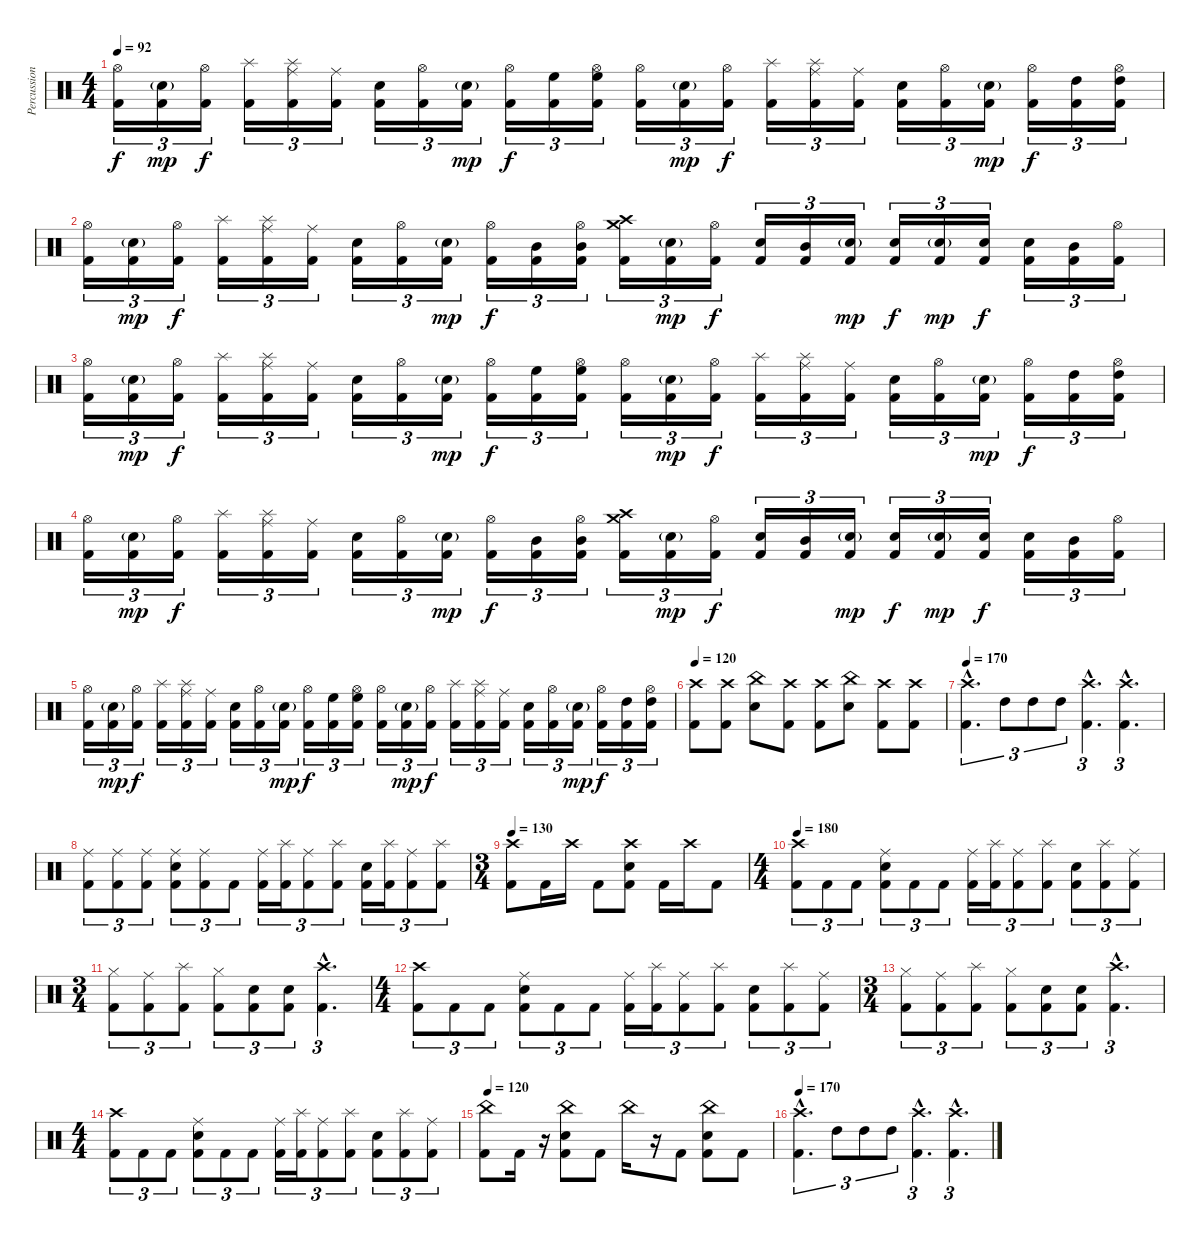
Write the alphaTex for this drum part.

\track ("Percussion" "Percussion") {instrument percussion}
\staff {score}
\articulation defaults
\ts (4 4)
\tempo 92
\clef neutral
\ks c
("Hi-Hat (open)" "Kick (hit) 2").16{tu (3 2) dy f} ("Electric Snare (hit)"{g} "Kick (hit) 2").16{tu (3 2) dy mp} ("Hi-Hat (open)" "Kick (hit) 2").16{tu (3 2) dy f} ("Splash (hit)" "Kick (hit) 2").16{tu (3 2)} ("Ride (middle)" "Splash (hit)" "Kick (hit) 2").16{tu (3 2)} ("Ride (middle)" "Kick (hit) 2").16{tu (3 2)} ("Electric Snare (hit)" "Kick (hit) 2").16{tu (3 2)} ("Hi-Hat (open)" "Kick (hit) 2").16{tu (3 2)} ("Electric Snare (hit)"{g} "Kick (hit) 2").16{tu (3 2) dy mp} ("Hi-Hat (open)" "Kick (hit) 2").16{tu (3 2) dy f} ("High Floor Tom (hit)" "Kick (hit) 2").16{tu (3 2)} ("High Floor Tom (hit)" "Hi-Hat (open)" "Kick (hit) 2").16{tu (3 2)} ("Hi-Hat (open)" "Kick (hit) 2").16{tu (3 2)} ("Electric Snare (hit)"{g} "Kick (hit) 2").16{tu (3 2) dy mp} ("Hi-Hat (open)" "Kick (hit) 2").16{tu (3 2) dy f} ("Splash (hit)" "Kick (hit) 2").16{tu (3 2)} ("Ride (middle)" "Splash (hit)" "Kick (hit) 2").16{tu (3 2)} ("Ride (middle)" "Kick (hit) 2").16{tu (3 2)} ("Electric Snare (hit)" "Kick (hit) 2").16{tu (3 2)} ("Hi-Hat (open)" "Kick (hit) 2").16{tu (3 2)} ("Electric Snare (hit)"{g} "Kick (hit) 2").16{tu (3 2) dy mp} ("Hi-Hat (open)" "Kick (hit) 2").16{tu (3 2) dy f} ("High Tom (hit)" "Kick (hit) 2").16{tu (3 2)} ("High Tom (hit)" "Hi-Hat (open)" "Kick (hit) 2").16{tu (3 2)} |
("Hi-Hat (open)" "Kick (hit) 2").16{tu (3 2)} ("Electric Snare (hit)"{g} "Kick (hit) 2").16{tu (3 2) dy mp} ("Hi-Hat (open)" "Kick (hit) 2").16{tu (3 2) dy f} ("Splash (hit)" "Kick (hit) 2").16{tu (3 2)} ("Ride (middle)" "Splash (hit)" "Kick (hit) 2").16{tu (3 2)} ("Ride (middle)" "Kick (hit) 2").16{tu (3 2)} ("Electric Snare (hit)" "Kick (hit) 2").16{tu (3 2)} ("Hi-Hat (open)" "Kick (hit) 2").16{tu (3 2)} ("Electric Snare (hit)"{g} "Kick (hit) 2").16{tu (3 2) dy mp} ("Hi-Hat (open)" "Kick (hit) 2").16{tu (3 2) dy f} ("Mid Tom (hit)" "Kick (hit) 2").16{tu (3 2)} ("Mid Tom (hit)" "Hi-Hat (open)" "Kick (hit) 2").16{tu (3 2)} ("Crash medium (hit)" "Crash high (hit)" "Kick (hit) 2").16{tu (3 2)} ("Electric Snare (hit)"{g} "Kick (hit) 2").16{tu (3 2) dy mp} ("Hi-Hat (open)" "Kick (hit) 2").16{tu (3 2) dy f} ("Electric Snare (hit)" "Kick (hit) 2").16{tu (3 2)} ("Mid Tom (hit)" "Kick (hit) 2").16{tu (3 2)} ("Electric Snare (hit)"{g} "Kick (hit) 2").16{tu (3 2) dy mp} ("Electric Snare (hit)" "Kick (hit) 2").16{tu (3 2) dy f} ("Electric Snare (hit)"{g} "Kick (hit) 2").16{tu (3 2) dy mp} ("Electric Snare (hit)" "Kick (hit) 2").16{tu (3 2) dy f} ("Electric Snare (hit)" "Kick (hit) 2").16{tu (3 2)} ("Mid Tom (hit)" "Kick (hit) 2").16{tu (3 2)} ("Hi-Hat (open)" "Kick (hit) 2").16{tu (3 2)} |
("Hi-Hat (open)" "Kick (hit) 2").16{tu (3 2)} ("Electric Snare (hit)"{g} "Kick (hit) 2").16{tu (3 2) dy mp} ("Hi-Hat (open)" "Kick (hit) 2").16{tu (3 2) dy f} ("Splash (hit)" "Kick (hit) 2").16{tu (3 2)} ("Ride (middle)" "Splash (hit)" "Kick (hit) 2").16{tu (3 2)} ("Ride (middle)" "Kick (hit) 2").16{tu (3 2)} ("Electric Snare (hit)" "Kick (hit) 2").16{tu (3 2)} ("Hi-Hat (open)" "Kick (hit) 2").16{tu (3 2)} ("Electric Snare (hit)"{g} "Kick (hit) 2").16{tu (3 2) dy mp} ("Hi-Hat (open)" "Kick (hit) 2").16{tu (3 2) dy f} ("High Floor Tom (hit)" "Kick (hit) 2").16{tu (3 2)} ("High Floor Tom (hit)" "Hi-Hat (open)" "Kick (hit) 2").16{tu (3 2)} ("Hi-Hat (open)" "Kick (hit) 2").16{tu (3 2)} ("Electric Snare (hit)"{g} "Kick (hit) 2").16{tu (3 2) dy mp} ("Hi-Hat (open)" "Kick (hit) 2").16{tu (3 2) dy f} ("Splash (hit)" "Kick (hit) 2").16{tu (3 2)} ("Ride (middle)" "Splash (hit)" "Kick (hit) 2").16{tu (3 2)} ("Ride (middle)" "Kick (hit) 2").16{tu (3 2)} ("Electric Snare (hit)" "Kick (hit) 2").16{tu (3 2)} ("Hi-Hat (open)" "Kick (hit) 2").16{tu (3 2)} ("Electric Snare (hit)"{g} "Kick (hit) 2").16{tu (3 2) dy mp} ("Hi-Hat (open)" "Kick (hit) 2").16{tu (3 2) dy f} ("High Tom (hit)" "Kick (hit) 2").16{tu (3 2)} ("High Tom (hit)" "Hi-Hat (open)" "Kick (hit) 2").16{tu (3 2)} |
("Hi-Hat (open)" "Kick (hit) 2").16{tu (3 2)} ("Electric Snare (hit)"{g} "Kick (hit) 2").16{tu (3 2) dy mp} ("Hi-Hat (open)" "Kick (hit) 2").16{tu (3 2) dy f} ("Splash (hit)" "Kick (hit) 2").16{tu (3 2)} ("Ride (middle)" "Splash (hit)" "Kick (hit) 2").16{tu (3 2)} ("Ride (middle)" "Kick (hit) 2").16{tu (3 2)} ("Electric Snare (hit)" "Kick (hit) 2").16{tu (3 2)} ("Hi-Hat (open)" "Kick (hit) 2").16{tu (3 2)} ("Electric Snare (hit)"{g} "Kick (hit) 2").16{tu (3 2) dy mp} ("Hi-Hat (open)" "Kick (hit) 2").16{tu (3 2) dy f} ("Mid Tom (hit)" "Kick (hit) 2").16{tu (3 2)} ("Mid Tom (hit)" "Hi-Hat (open)" "Kick (hit) 2").16{tu (3 2)} ("Crash medium (hit)" "Crash high (hit)" "Kick (hit) 2").16{tu (3 2)} ("Electric Snare (hit)"{g} "Kick (hit) 2").16{tu (3 2) dy mp} ("Hi-Hat (open)" "Kick (hit) 2").16{tu (3 2) dy f} ("Electric Snare (hit)" "Kick (hit) 2").16{tu (3 2)} ("Mid Tom (hit)" "Kick (hit) 2").16{tu (3 2)} ("Electric Snare (hit)"{g} "Kick (hit) 2").16{tu (3 2) dy mp} ("Electric Snare (hit)" "Kick (hit) 2").16{tu (3 2) dy f} ("Electric Snare (hit)"{g} "Kick (hit) 2").16{tu (3 2) dy mp} ("Electric Snare (hit)" "Kick (hit) 2").16{tu (3 2) dy f} ("Electric Snare (hit)" "Kick (hit) 2").16{tu (3 2)} ("Mid Tom (hit)" "Kick (hit) 2").16{tu (3 2)} ("Hi-Hat (open)" "Kick (hit) 2").16{tu (3 2)} |
("Hi-Hat (open)" "Kick (hit) 2").16{tu (3 2)} ("Electric Snare (hit)"{g} "Kick (hit) 2").16{tu (3 2) dy mp} ("Hi-Hat (open)" "Kick (hit) 2").16{tu (3 2) dy f} ("Splash (hit)" "Kick (hit) 2").16{tu (3 2)} ("Ride (middle)" "Splash (hit)" "Kick (hit) 2").16{tu (3 2)} ("Ride (middle)" "Kick (hit) 2").16{tu (3 2)} ("Electric Snare (hit)" "Kick (hit) 2").16{tu (3 2)} ("Hi-Hat (open)" "Kick (hit) 2").16{tu (3 2)} ("Electric Snare (hit)"{g} "Kick (hit) 2").16{tu (3 2) dy mp} ("Hi-Hat (open)" "Kick (hit) 2").16{tu (3 2) dy f} ("High Floor Tom (hit)" "Kick (hit) 2").16{tu (3 2)} ("High Floor Tom (hit)" "Hi-Hat (open)" "Kick (hit) 2").16{tu (3 2)} ("Hi-Hat (open)" "Kick (hit) 2").16{tu (3 2)} ("Electric Snare (hit)"{g} "Kick (hit) 2").16{tu (3 2) dy mp} ("Hi-Hat (open)" "Kick (hit) 2").16{tu (3 2) dy f} ("Splash (hit)" "Kick (hit) 2").16{tu (3 2)} ("Ride (middle)" "Splash (hit)" "Kick (hit) 2").16{tu (3 2)} ("Ride (middle)" "Kick (hit) 2").16{tu (3 2)} ("Electric Snare (hit)" "Kick (hit) 2").16{tu (3 2)} ("Hi-Hat (open)" "Kick (hit) 2").16{tu (3 2)} ("Electric Snare (hit)"{g} "Kick (hit) 2").16{tu (3 2) dy mp} ("Hi-Hat (open)" "Kick (hit) 2").16{tu (3 2) dy f} ("High Tom (hit)" "Kick (hit) 2").16{tu (3 2)} ("High Tom (hit)" "Hi-Hat (open)" "Kick (hit) 2").16{tu (3 2)} |
\tempo 120
("Crash high (hit)" "Kick (hit) 2").8 ("Crash high (hit)" "Kick (hit) 2").8 ("China (hit)" "Electric Snare (hit)").8 ("Crash high (hit)" "Kick (hit) 2").8 ("Crash high (hit)" "Kick (hit) 2").8 ("China (hit)" "Electric Snare (hit)").8 ("Crash high (hit)" "Kick (hit) 2").8 ("Crash high (hit)" "Kick (hit) 2").8 |
\tempo 170
("Crash high (hit)"{hac} "Kick (hit) 2"{hac}).4{d tu (3 2)} "High Tom (hit)".8{tu (3 2)} "High Tom (hit)".8{tu (3 2)} "High Tom (hit)".8{tu (3 2)} ("Crash high (hit)"{hac} "Kick (hit) 2"{hac}).4{d tu (3 2)} ("Crash high (hit)"{hac} "Kick (hit) 2"{hac}).4{d tu (3 2)} |
("Ride (middle)" "Kick (hit) 2").8{tu (3 2)} ("Ride (middle)" "Kick (hit) 2").8{tu (3 2)} ("Ride (middle)" "Kick (hit) 2").8{tu (3 2)} ("Ride (middle)" "Electric Snare (hit)" "Kick (hit) 2").8{tu (3 2)} ("Ride (middle)" "Kick (hit) 2").8{tu (3 2)} "Kick (hit) 2".8{tu (3 2)} ("Ride (middle)" "Kick (hit) 2").16{tu (3 2)} ("Splash (hit)" "Kick (hit) 2").16{tu (3 2)} ("Ride (middle)" "Kick (hit) 2").8{tu (3 2)} ("Splash (hit)" "Kick (hit) 2").8{tu (3 2)} ("Electric Snare (hit)" "Kick (hit) 2").16{tu (3 2)} ("Splash (hit)" "Kick (hit) 2").16{tu (3 2)} ("Ride (middle)" "Kick (hit) 2").8{tu (3 2)} ("Splash (hit)" "Kick (hit) 2").8{tu (3 2)} |
\ts (3 4)
\tempo 130
("Crash high (hit)" "Kick (hit) 2").8 "Kick (hit) 2".16 "Crash high (hit)".16 "Kick (hit) 2".8 ("Crash high (hit)" "Electric Snare (hit)" "Kick (hit) 2").8 "Kick (hit) 2".16 "Crash high (hit)".16 "Kick (hit) 2".8 |
\ts (4 4)
\tempo 180
("Crash high (hit)" "Kick (hit) 2").8{tu (3 2)} "Kick (hit) 2".8{tu (3 2)} "Kick (hit) 2".8{tu (3 2)} ("Ride (middle)" "Electric Snare (hit)" "Kick (hit) 2").8{tu (3 2)} "Kick (hit) 2".8{tu (3 2)} "Kick (hit) 2".8{tu (3 2)} ("Ride (middle)" "Kick (hit) 2").16{tu (3 2)} ("Splash (hit)" "Kick (hit) 2").16{tu (3 2)} ("Ride (middle)" "Kick (hit) 2").8{tu (3 2)} ("Splash (hit)" "Kick (hit) 2").8{tu (3 2)} ("Electric Snare (hit)" "Kick (hit) 2").8{tu (3 2)} ("Splash (hit)" "Kick (hit) 2").8{tu (3 2)} ("Ride (middle)" "Kick (hit) 2").8{tu (3 2)} |
\ts (3 4)
("Hi-Hat (closed)" "Kick (hit) 2").8{tu (3 2)} ("Ride (middle)" "Kick (hit) 2").8{tu (3 2)} ("Splash (hit)" "Kick (hit) 2").8{tu (3 2)} ("Hi-Hat (closed)" "Kick (hit) 2").8{tu (3 2)} ("Electric Snare (hit)" "Kick (hit) 2").8{tu (3 2)} ("Electric Snare (hit)" "Kick (hit) 2").8{tu (3 2)} ("Crash high (hit)"{hac} "Kick (hit) 2"{hac}).4{d tu (3 2)} |
\ts (4 4)
("Crash high (hit)" "Kick (hit) 2").8{tu (3 2)} "Kick (hit) 2".8{tu (3 2)} "Kick (hit) 2".8{tu (3 2)} ("Ride (middle)" "Electric Snare (hit)" "Kick (hit) 2").8{tu (3 2)} "Kick (hit) 2".8{tu (3 2)} "Kick (hit) 2".8{tu (3 2)} ("Ride (middle)" "Kick (hit) 2").16{tu (3 2)} ("Splash (hit)" "Kick (hit) 2").16{tu (3 2)} ("Ride (middle)" "Kick (hit) 2").8{tu (3 2)} ("Splash (hit)" "Kick (hit) 2").8{tu (3 2)} ("Electric Snare (hit)" "Kick (hit) 2").8{tu (3 2)} ("Splash (hit)" "Kick (hit) 2").8{tu (3 2)} ("Ride (middle)" "Kick (hit) 2").8{tu (3 2)} |
\ts (3 4)
("Hi-Hat (closed)" "Kick (hit) 2").8{tu (3 2)} ("Ride (middle)" "Kick (hit) 2").8{tu (3 2)} ("Splash (hit)" "Kick (hit) 2").8{tu (3 2)} ("Hi-Hat (closed)" "Kick (hit) 2").8{tu (3 2)} ("Electric Snare (hit)" "Kick (hit) 2").8{tu (3 2)} ("Electric Snare (hit)" "Kick (hit) 2").8{tu (3 2)} ("Crash high (hit)"{hac} "Kick (hit) 2"{hac}).4{d tu (3 2)} |
\ts (4 4)
("Crash high (hit)" "Kick (hit) 2").8{tu (3 2)} "Kick (hit) 2".8{tu (3 2)} "Kick (hit) 2".8{tu (3 2)} ("Ride (middle)" "Electric Snare (hit)" "Kick (hit) 2").8{tu (3 2)} "Kick (hit) 2".8{tu (3 2)} "Kick (hit) 2".8{tu (3 2)} ("Ride (middle)" "Kick (hit) 2").16{tu (3 2)} ("Splash (hit)" "Kick (hit) 2").16{tu (3 2)} ("Ride (middle)" "Kick (hit) 2").8{tu (3 2)} ("Splash (hit)" "Kick (hit) 2").8{tu (3 2)} ("Electric Snare (hit)" "Kick (hit) 2").8{tu (3 2)} ("Splash (hit)" "Kick (hit) 2").8{tu (3 2)} ("Ride (middle)" "Kick (hit) 2").8{tu (3 2)} |
\tempo 120
("China (hit)" "Kick (hit) 2").8 "Kick (hit) 2".16 r.16 ("China (hit)" "Electric Snare (hit)" "Kick (hit) 2").8 "Kick (hit) 2".8 "China (hit)".16 r.16 "Kick (hit) 2".8 ("China (hit)" "Electric Snare (hit)" "Kick (hit) 2").8 "Kick (hit) 2".8 |
\tempo 170
("Crash high (hit)"{hac} "Kick (hit) 2"{hac}).4{d tu (3 2)} "High Tom (hit)".8{tu (3 2)} "High Tom (hit)".8{tu (3 2)} "High Tom (hit)".8{tu (3 2)} ("Crash high (hit)"{hac} "Kick (hit) 2"{hac}).4{d tu (3 2)} ("Crash high (hit)"{hac} "Kick (hit) 2"{hac}).4{d tu (3 2)}
